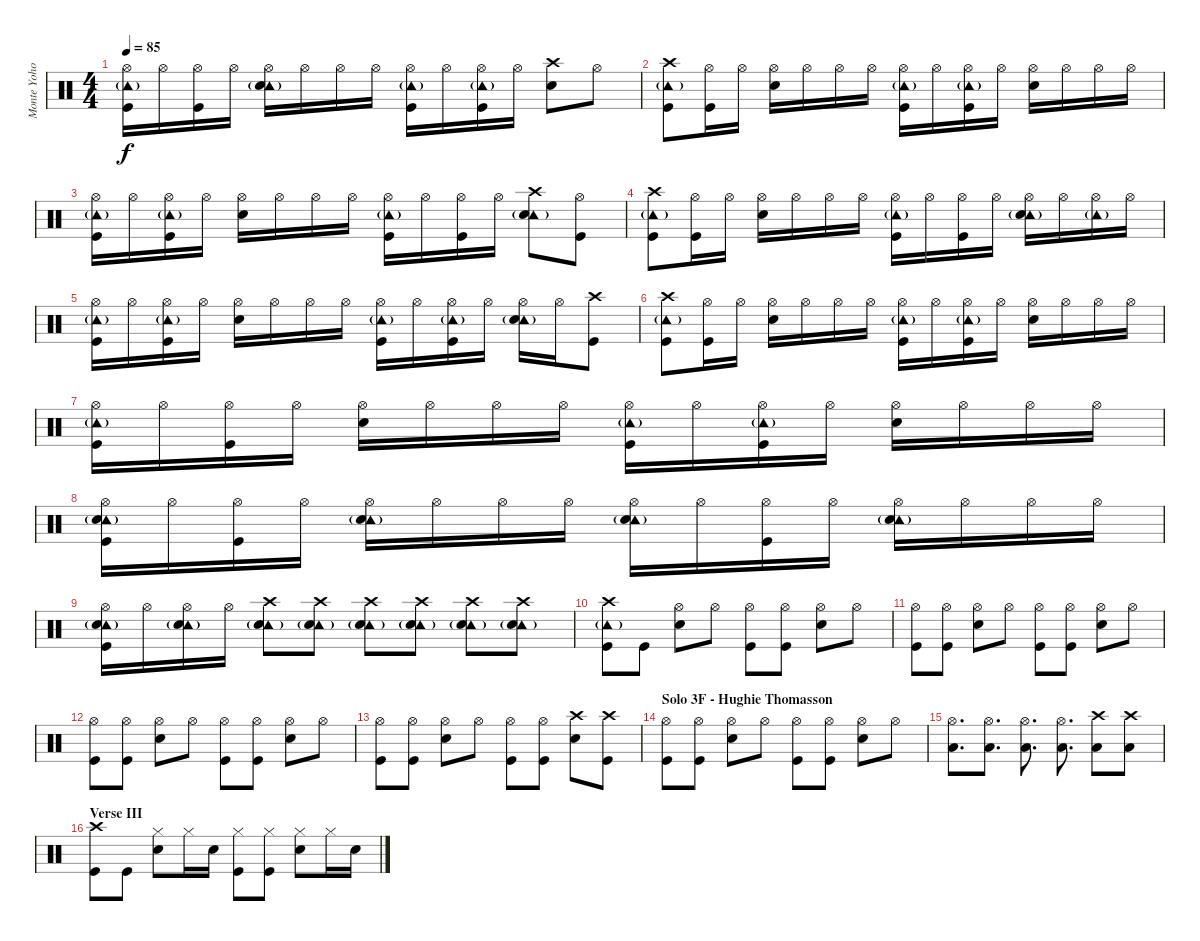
\track ("Monte Yoho - Drums" "Monte Yoho") {instrument percussion}
\staff {score}
\articulation defaults
\ts (4 4)
\tempo 85
\clef neutral
\ks c
("Hi-Hat (open)" "Tambourine (hit)"{g} "Kick (hit)").16{dy f} "Hi-Hat (open)".16 ("Hi-Hat (open)" "Kick (hit)").16 "Hi-Hat (open)".16 ("Hi-Hat (open)" "Tambourine (hit)"{g} "Snare (hit) 2").16 "Hi-Hat (open)".16 "Hi-Hat (open)".16 "Hi-Hat (open)".16 ("Hi-Hat (open)" "Tambourine (hit)"{g} "Kick (hit)").16 "Hi-Hat (open)".16 ("Hi-Hat (open)" "Tambourine (hit)"{g} "Kick (hit)").16 "Hi-Hat (open)".16 ("Crash high (hit)" "Snare (hit) 2").8 "Hi-Hat (open)".8 |
("Crash high (hit)" "Tambourine (hit)"{g} "Kick (hit)").8 ("Hi-Hat (open)" "Kick (hit)").16 "Hi-Hat (open)".16 ("Hi-Hat (open)" "Snare (hit) 2").16 "Hi-Hat (open)".16 "Hi-Hat (open)".16 "Hi-Hat (open)".16 ("Hi-Hat (open)" "Tambourine (hit)"{g} "Kick (hit)").16 "Hi-Hat (open)".16 ("Hi-Hat (open)" "Tambourine (hit)"{g} "Kick (hit)").16 "Hi-Hat (open)".16 ("Hi-Hat (open)" "Snare (hit) 2").16 "Hi-Hat (open)".16 "Hi-Hat (open)".16 "Hi-Hat (open)".16 |
("Hi-Hat (open)" "Tambourine (hit)"{g} "Kick (hit)").16 "Hi-Hat (open)".16 ("Hi-Hat (open)" "Tambourine (hit)"{g} "Kick (hit)").16 "Hi-Hat (open)".16 ("Hi-Hat (open)" "Snare (hit) 2").16 "Hi-Hat (open)".16 "Hi-Hat (open)".16 "Hi-Hat (open)".16 ("Hi-Hat (open)" "Tambourine (hit)"{g} "Kick (hit)").16 "Hi-Hat (open)".16 ("Hi-Hat (open)" "Kick (hit)").16 "Hi-Hat (open)".16 ("Crash high (hit)" "Tambourine (hit)"{g} "Snare (hit) 2").8 ("Hi-Hat (open)" "Kick (hit)").8 |
("Crash high (hit)" "Tambourine (hit)"{g} "Kick (hit)").8 ("Hi-Hat (open)" "Kick (hit)").16 "Hi-Hat (open)".16 ("Hi-Hat (open)" "Snare (hit) 2").16 "Hi-Hat (open)".16 "Hi-Hat (open)".16 "Hi-Hat (open)".16 ("Hi-Hat (open)" "Tambourine (hit)"{g} "Kick (hit)").16 "Hi-Hat (open)".16 ("Hi-Hat (open)" "Kick (hit)").16 "Hi-Hat (open)".16 ("Hi-Hat (open)" "Tambourine (hit)"{g} "Snare (hit) 2").16 "Hi-Hat (open)".16 ("Hi-Hat (open)" "Tambourine (hit)"{g}).16 "Hi-Hat (open)".16 |
("Hi-Hat (open)" "Tambourine (hit)"{g} "Kick (hit)").16 "Hi-Hat (open)".16 ("Hi-Hat (open)" "Tambourine (hit)"{g} "Kick (hit)").16 "Hi-Hat (open)".16 ("Hi-Hat (open)" "Snare (hit) 2").16 "Hi-Hat (open)".16 "Hi-Hat (open)".16 "Hi-Hat (open)".16 ("Hi-Hat (open)" "Tambourine (hit)"{g} "Kick (hit)").16 "Hi-Hat (open)".16 ("Hi-Hat (open)" "Tambourine (hit)"{g} "Kick (hit)").16 "Hi-Hat (open)".16 ("Hi-Hat (open)" "Tambourine (hit)"{g} "Snare (hit) 2").16 "Hi-Hat (open)".16 ("Crash high (hit)" "Kick (hit)").8 |
("Crash high (hit)" "Tambourine (hit)"{g} "Kick (hit)").8 ("Hi-Hat (open)" "Kick (hit)").16 "Hi-Hat (open)".16 ("Hi-Hat (open)" "Snare (hit) 2").16 "Hi-Hat (open)".16 "Hi-Hat (open)".16 "Hi-Hat (open)".16 ("Hi-Hat (open)" "Tambourine (hit)"{g} "Kick (hit)").16 "Hi-Hat (open)".16 ("Hi-Hat (open)" "Tambourine (hit)"{g} "Kick (hit)").16 "Hi-Hat (open)".16 ("Hi-Hat (open)" "Snare (hit) 2").16 "Hi-Hat (open)".16 "Hi-Hat (open)".16 "Hi-Hat (open)".16 |
("Hi-Hat (open)" "Tambourine (hit)"{g} "Kick (hit)").16 "Hi-Hat (open)".16 ("Hi-Hat (open)" "Kick (hit)").16 "Hi-Hat (open)".16 ("Hi-Hat (open)" "Snare (hit) 2").16 "Hi-Hat (open)".16 "Hi-Hat (open)".16 "Hi-Hat (open)".16 ("Hi-Hat (open)" "Tambourine (hit)"{g} "Kick (hit)").16 "Hi-Hat (open)".16 ("Hi-Hat (open)" "Tambourine (hit)"{g} "Kick (hit)").16 "Hi-Hat (open)".16 ("Hi-Hat (open)" "Snare (hit) 2").16 "Hi-Hat (open)".16 "Hi-Hat (open)".16 "Hi-Hat (open)".16 |
("Hi-Hat (open)" "Tambourine (hit)"{g} "Snare (hit) 2" "Kick (hit)").16 "Hi-Hat (open)".16 ("Hi-Hat (open)" "Kick (hit)").16 "Hi-Hat (open)".16 ("Hi-Hat (open)" "Tambourine (hit)"{g} "Snare (hit) 2").16 "Hi-Hat (open)".16 "Hi-Hat (open)".16 "Hi-Hat (open)".16 ("Hi-Hat (open)" "Tambourine (hit)"{g} "Snare (hit) 2").16 "Hi-Hat (open)".16 ("Hi-Hat (open)" "Kick (hit)").16 "Hi-Hat (open)".16 ("Hi-Hat (open)" "Tambourine (hit)"{g} "Snare (hit) 2").16 "Hi-Hat (open)".16 "Hi-Hat (open)".16 "Hi-Hat (open)".16 |
("Hi-Hat (open)" "Tambourine (hit)"{g} "Snare (hit) 2" "Kick (hit)").16 "Hi-Hat (open)".16 ("Hi-Hat (open)" "Tambourine (hit)"{g} "Snare (hit) 2").16 "Hi-Hat (open)".16 ("Crash high (hit)" "Tambourine (hit)"{g} "Snare (hit) 2").8 ("Crash high (hit)" "Tambourine (hit)"{g} "Snare (hit) 2").8 ("Crash high (hit)" "Tambourine (hit)"{g} "Snare (hit) 2").8 ("Crash high (hit)" "Tambourine (hit)"{g} "Snare (hit) 2").8 ("Crash high (hit)" "Tambourine (hit)"{g} "Snare (hit) 2").8 ("Crash high (hit)" "Tambourine (hit)"{g} "Snare (hit) 2").8 |
("Crash high (hit)" "Tambourine (hit)"{g} "Kick (hit)").8 "Kick (hit)".8 ("Hi-Hat (open)" "Snare (hit) 2").8 "Hi-Hat (open)".8 ("Hi-Hat (open)" "Kick (hit)").8 ("Hi-Hat (open)" "Kick (hit)").8 ("Hi-Hat (open)" "Snare (hit) 2").8 "Hi-Hat (open)".8 |
("Hi-Hat (open)" "Kick (hit)").8 ("Hi-Hat (open)" "Kick (hit)").8 ("Hi-Hat (open)" "Snare (hit) 2").8 "Hi-Hat (open)".8 ("Hi-Hat (open)" "Kick (hit)").8 ("Hi-Hat (open)" "Kick (hit)").8 ("Hi-Hat (open)" "Snare (hit) 2").8 "Hi-Hat (open)".8 |
("Hi-Hat (open)" "Kick (hit)").8 ("Hi-Hat (open)" "Kick (hit)").8 ("Hi-Hat (open)" "Snare (hit) 2").8 "Hi-Hat (open)".8 ("Hi-Hat (open)" "Kick (hit)").8 ("Hi-Hat (open)" "Kick (hit)").8 ("Hi-Hat (open)" "Snare (hit) 2").8 "Hi-Hat (open)".8 |
("Hi-Hat (open)" "Kick (hit)").8 ("Hi-Hat (open)" "Kick (hit)").8 ("Hi-Hat (open)" "Snare (hit) 2").8 "Hi-Hat (open)".8 ("Hi-Hat (open)" "Kick (hit)").8 ("Hi-Hat (open)" "Kick (hit)").8 ("Crash high (hit)" "Snare (hit) 2").8 ("Crash high (hit)" "Kick (hit)").8 |
\section ("" "Solo 3F - Hughie Thomasson")
("Hi-Hat (open)" "Kick (hit)").8 ("Hi-Hat (open)" "Kick (hit)").8 ("Hi-Hat (open)" "Snare (hit) 2").8 "Hi-Hat (open)".8 ("Hi-Hat (open)" "Kick (hit)").8 ("Hi-Hat (open)" "Kick (hit)").8 ("Hi-Hat (open)" "Snare (hit) 2").8 "Hi-Hat (open)".8 |
("Hi-Hat (open)" "Low Tom (hit)").8{d} ("Hi-Hat (open)" "Low Tom (hit)").8{d} ("Hi-Hat (open)" "Low Tom (hit)").8{d} ("Hi-Hat (open)" "Low Tom (hit)").8{d} ("Crash high (hit)" "Low Tom (hit)").8 ("Crash high (hit)" "Low Tom (hit)").8 |
\section ("" "Verse III")
("Crash high (hit)" "Kick (hit)").8 "Kick (hit)".8 ("Hi-Hat (closed)" "Snare (hit) 2").8 "Hi-Hat (closed)".16 "Snare (hit) 2".16 ("Hi-Hat (closed)" "Kick (hit)").8 ("Hi-Hat (closed)" "Kick (hit)").8 ("Hi-Hat (closed)" "Snare (hit) 2").8 "Hi-Hat (closed)".16 "Snare (hit) 2".16
